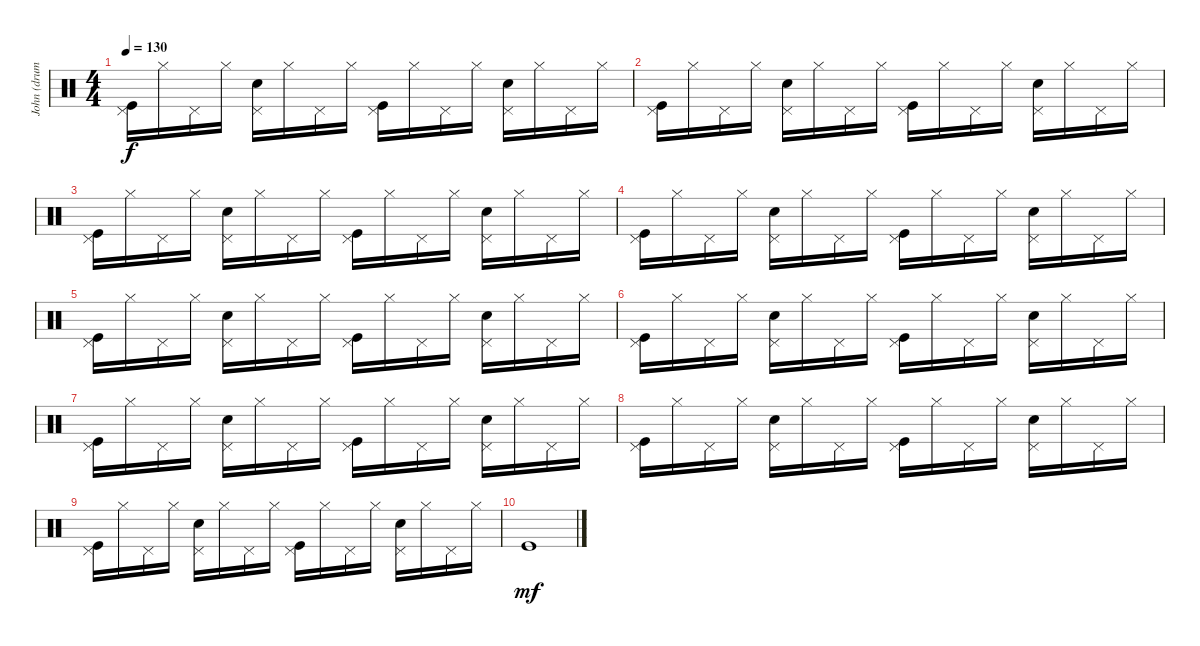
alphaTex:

\track ("John (drums)" "John (drum") {instrument percussion}
\staff {score}
\articulation defaults
\ts (4 4)
\tempo 130
\clef neutral
\ks c
("Pedal Hi-Hat (hit)" "Kick (hit)").16{dy f} "Hi-Hat (closed)".16 "Pedal Hi-Hat (hit)".16 "Hi-Hat (closed)".16 ("Pedal Hi-Hat (hit)" "Electric Snare (hit)").16 "Hi-Hat (closed)".16 "Pedal Hi-Hat (hit)".16 "Hi-Hat (closed)".16 ("Pedal Hi-Hat (hit)" "Kick (hit)").16 "Hi-Hat (closed)".16 "Pedal Hi-Hat (hit)".16 "Hi-Hat (closed)".16 ("Pedal Hi-Hat (hit)" "Snare (hit) 2").16 "Hi-Hat (closed)".16 "Pedal Hi-Hat (hit)".16 "Hi-Hat (closed)".16 |
("Pedal Hi-Hat (hit)" "Kick (hit)").16 "Hi-Hat (closed)".16 "Pedal Hi-Hat (hit)".16 "Hi-Hat (closed)".16 ("Pedal Hi-Hat (hit)" "Electric Snare (hit)").16 "Hi-Hat (closed)".16 "Pedal Hi-Hat (hit)".16 "Hi-Hat (closed)".16 ("Pedal Hi-Hat (hit)" "Kick (hit)").16 "Hi-Hat (closed)".16 "Pedal Hi-Hat (hit)".16 "Hi-Hat (closed)".16 ("Pedal Hi-Hat (hit)" "Snare (hit) 2").16 "Hi-Hat (closed)".16 "Pedal Hi-Hat (hit)".16 "Hi-Hat (closed)".16 |
("Pedal Hi-Hat (hit)" "Kick (hit)").16 "Hi-Hat (closed)".16 "Pedal Hi-Hat (hit)".16 "Hi-Hat (closed)".16 ("Pedal Hi-Hat (hit)" "Electric Snare (hit)").16 "Hi-Hat (closed)".16 "Pedal Hi-Hat (hit)".16 "Hi-Hat (closed)".16 ("Pedal Hi-Hat (hit)" "Kick (hit)").16 "Hi-Hat (closed)".16 "Pedal Hi-Hat (hit)".16 "Hi-Hat (closed)".16 ("Pedal Hi-Hat (hit)" "Snare (hit) 2").16 "Hi-Hat (closed)".16 "Pedal Hi-Hat (hit)".16 "Hi-Hat (closed)".16 |
("Pedal Hi-Hat (hit)" "Kick (hit)").16 "Hi-Hat (closed)".16 "Pedal Hi-Hat (hit)".16 "Hi-Hat (closed)".16 ("Pedal Hi-Hat (hit)" "Electric Snare (hit)").16 "Hi-Hat (closed)".16 "Pedal Hi-Hat (hit)".16 "Hi-Hat (closed)".16 ("Pedal Hi-Hat (hit)" "Kick (hit)").16 "Hi-Hat (closed)".16 "Pedal Hi-Hat (hit)".16 "Hi-Hat (closed)".16 ("Pedal Hi-Hat (hit)" "Snare (hit) 2").16 "Hi-Hat (closed)".16 "Pedal Hi-Hat (hit)".16 "Hi-Hat (closed)".16 |
("Pedal Hi-Hat (hit)" "Kick (hit)").16 "Hi-Hat (closed)".16 "Pedal Hi-Hat (hit)".16 "Hi-Hat (closed)".16 ("Pedal Hi-Hat (hit)" "Electric Snare (hit)").16 "Hi-Hat (closed)".16 "Pedal Hi-Hat (hit)".16 "Hi-Hat (closed)".16 ("Pedal Hi-Hat (hit)" "Kick (hit)").16 "Hi-Hat (closed)".16 "Pedal Hi-Hat (hit)".16 "Hi-Hat (closed)".16 ("Pedal Hi-Hat (hit)" "Snare (hit) 2").16 "Hi-Hat (closed)".16 "Pedal Hi-Hat (hit)".16 "Hi-Hat (closed)".16 |
("Pedal Hi-Hat (hit)" "Kick (hit)").16 "Hi-Hat (closed)".16 "Pedal Hi-Hat (hit)".16 "Hi-Hat (closed)".16 ("Pedal Hi-Hat (hit)" "Electric Snare (hit)").16 "Hi-Hat (closed)".16 "Pedal Hi-Hat (hit)".16 "Hi-Hat (closed)".16 ("Pedal Hi-Hat (hit)" "Kick (hit)").16 "Hi-Hat (closed)".16 "Pedal Hi-Hat (hit)".16 "Hi-Hat (closed)".16 ("Pedal Hi-Hat (hit)" "Snare (hit) 2").16 "Hi-Hat (closed)".16 "Pedal Hi-Hat (hit)".16 "Hi-Hat (closed)".16 |
("Pedal Hi-Hat (hit)" "Kick (hit)").16 "Hi-Hat (closed)".16 "Pedal Hi-Hat (hit)".16 "Hi-Hat (closed)".16 ("Pedal Hi-Hat (hit)" "Electric Snare (hit)").16 "Hi-Hat (closed)".16 "Pedal Hi-Hat (hit)".16 "Hi-Hat (closed)".16 ("Pedal Hi-Hat (hit)" "Kick (hit)").16 "Hi-Hat (closed)".16 "Pedal Hi-Hat (hit)".16 "Hi-Hat (closed)".16 ("Pedal Hi-Hat (hit)" "Snare (hit) 2").16 "Hi-Hat (closed)".16 "Pedal Hi-Hat (hit)".16 "Hi-Hat (closed)".16 |
("Pedal Hi-Hat (hit)" "Kick (hit)").16 "Hi-Hat (closed)".16 "Pedal Hi-Hat (hit)".16 "Hi-Hat (closed)".16 ("Pedal Hi-Hat (hit)" "Electric Snare (hit)").16 "Hi-Hat (closed)".16 "Pedal Hi-Hat (hit)".16 "Hi-Hat (closed)".16 ("Pedal Hi-Hat (hit)" "Kick (hit)").16 "Hi-Hat (closed)".16 "Pedal Hi-Hat (hit)".16 "Hi-Hat (closed)".16 ("Pedal Hi-Hat (hit)" "Snare (hit) 2").16 "Hi-Hat (closed)".16 "Pedal Hi-Hat (hit)".16 "Hi-Hat (closed)".16 |
("Pedal Hi-Hat (hit)" "Kick (hit)").16 "Hi-Hat (closed)".16 "Pedal Hi-Hat (hit)".16 "Hi-Hat (closed)".16 ("Pedal Hi-Hat (hit)" "Electric Snare (hit)").16 "Hi-Hat (closed)".16 "Pedal Hi-Hat (hit)".16 "Hi-Hat (closed)".16 ("Pedal Hi-Hat (hit)" "Kick (hit)").16 "Hi-Hat (closed)".16 "Pedal Hi-Hat (hit)".16 "Hi-Hat (closed)".16 ("Pedal Hi-Hat (hit)" "Snare (hit) 2").16 "Hi-Hat (closed)".16 "Pedal Hi-Hat (hit)".16 "Hi-Hat (closed)".16 |
"Kick (hit)".1{dy mf}
